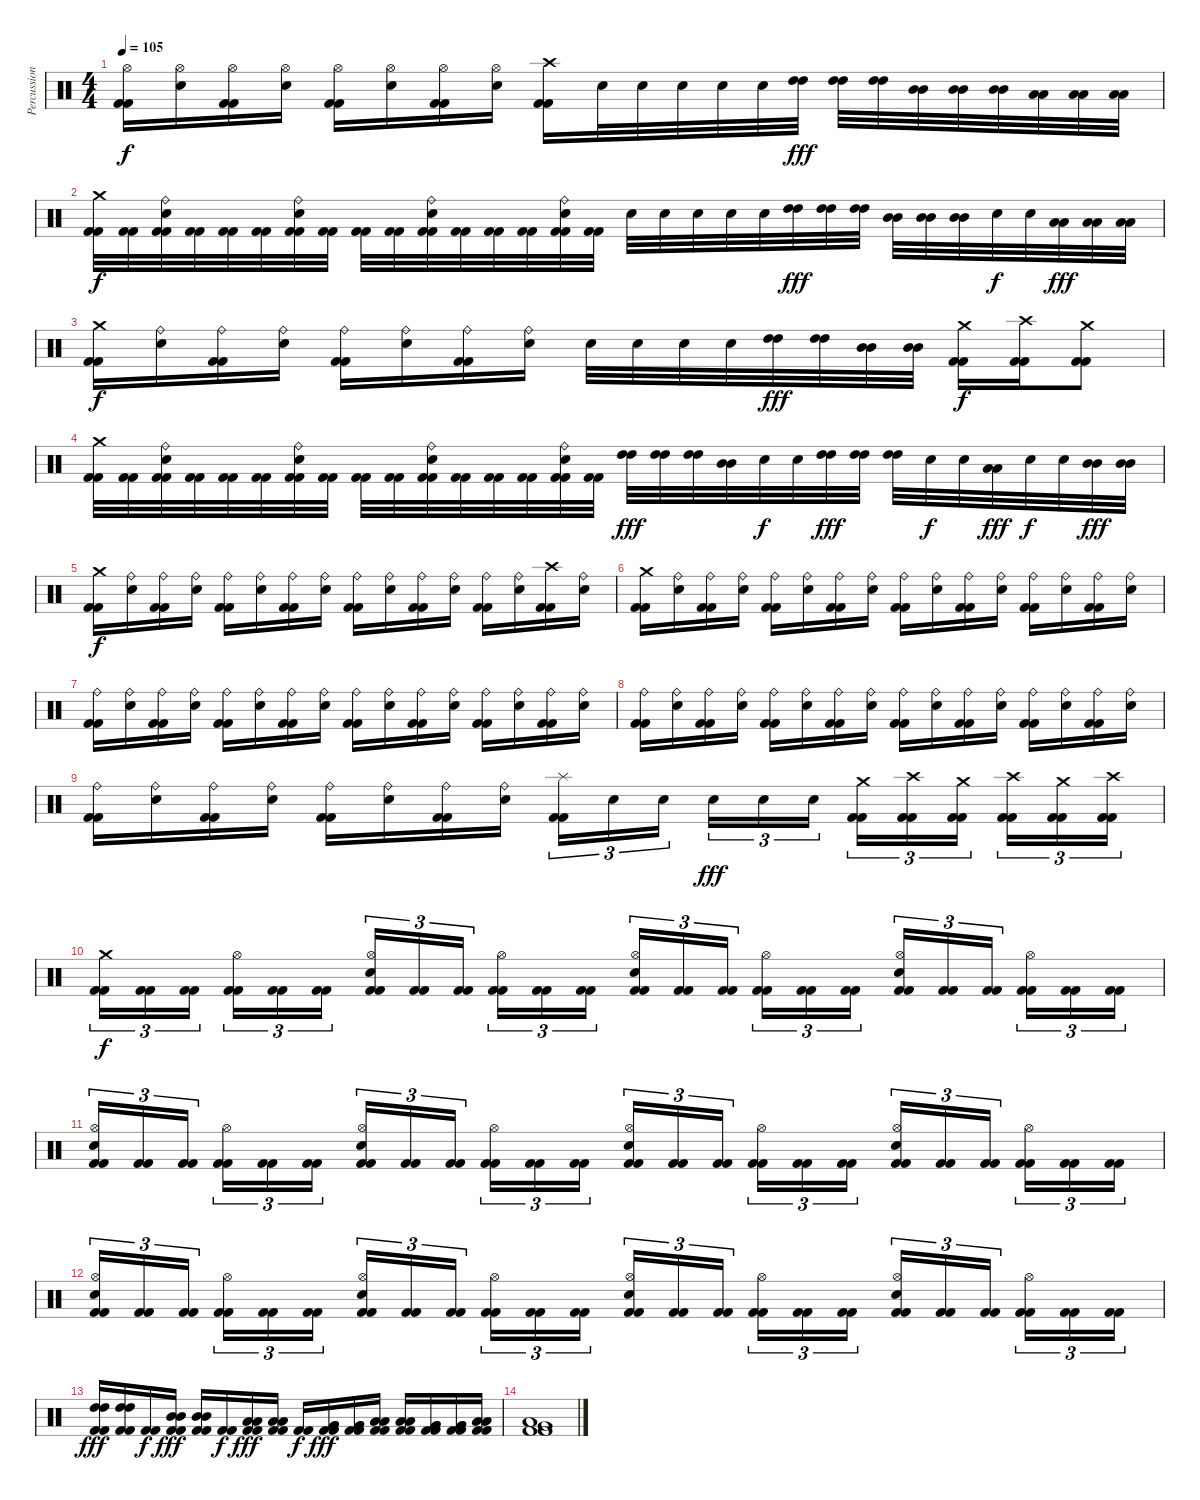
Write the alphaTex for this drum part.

\track ("Percussion" "Percussion") {instrument percussion}
\staff {score}
\articulation defaults
\ts (4 4)
\tempo 105
\clef neutral
\ks c
("Kick (hit) 2" "Kick (hit) 2" "Hi-Hat (open)").16{dy f} ("Hi-Hat (open)" "Electric Snare (hit)").16 ("Kick (hit) 2" "Kick (hit) 2" "Hi-Hat (open)").16 ("Hi-Hat (open)" "Electric Snare (hit)").16 ("Kick (hit) 2" "Kick (hit) 2" "Hi-Hat (open)").16 ("Hi-Hat (open)" "Electric Snare (hit)").16 ("Kick (hit) 2" "Kick (hit) 2" "Hi-Hat (open)").16 ("Hi-Hat (open)" "Electric Snare (hit)").16 ("Kick (hit) 2" "Kick (hit) 2" "Crash high (hit)").16 "Electric Snare (hit)".32 "Electric Snare (hit)".32 "Electric Snare (hit)".32 "Electric Snare (hit)".32 "Electric Snare (hit)".32 ("High Tom (hit)" "High Tom (hit)").32{dy fff} ("High Tom (hit)" "High Tom (hit)").32 ("High Tom (hit)" "High Tom (hit)").32 ("Mid Tom (hit)" "Mid Tom (hit)").32 ("Mid Tom (hit)" "Mid Tom (hit)").32 ("Mid Tom (hit)" "Mid Tom (hit)").32 ("Low Tom (hit)" "Low Tom (hit)").32 ("Low Tom (hit)" "Low Tom (hit)").32 ("Low Tom (hit)" "Low Tom (hit)").32 |
("Kick (hit) 2" "Kick (hit) 2" "Crash medium (hit)").32{dy f} ("Kick (hit) 2" "Kick (hit) 2").32 ("Kick (hit) 2" "Kick (hit) 2" "Ride (bell)" "Electric Snare (hit)").32 ("Kick (hit) 2" "Kick (hit) 2").32 ("Kick (hit) 2" "Kick (hit) 2").32 ("Kick (hit) 2" "Kick (hit) 2").32 ("Kick (hit) 2" "Kick (hit) 2" "Ride (bell)" "Electric Snare (hit)").32 ("Kick (hit) 2" "Kick (hit) 2").32 ("Kick (hit) 2" "Kick (hit) 2").32 ("Kick (hit) 2" "Kick (hit) 2").32 ("Kick (hit) 2" "Kick (hit) 2" "Ride (bell)" "Electric Snare (hit)").32 ("Kick (hit) 2" "Kick (hit) 2").32 ("Kick (hit) 2" "Kick (hit) 2").32 ("Kick (hit) 2" "Kick (hit) 2").32 ("Kick (hit) 2" "Kick (hit) 2" "Ride (bell)" "Electric Snare (hit)").32 ("Kick (hit) 2" "Kick (hit) 2").32 "Electric Snare (hit)".32 "Electric Snare (hit)".32 "Electric Snare (hit)".32 "Electric Snare (hit)".32 "Electric Snare (hit)".32 ("High Tom (hit)" "High Tom (hit)").32{dy fff} ("High Tom (hit)" "High Tom (hit)").32 ("High Tom (hit)" "High Tom (hit)").32 ("Mid Tom (hit)" "Mid Tom (hit)").32 ("Mid Tom (hit)" "Mid Tom (hit)").32 ("Mid Tom (hit)" "Mid Tom (hit)").32 "Electric Snare (hit)".32{dy f} "Electric Snare (hit)".32 ("Low Tom (hit)" "Low Tom (hit)").32{dy fff} ("Low Tom (hit)" "Low Tom (hit)").32 ("Low Tom (hit)" "Low Tom (hit)").32 |
("Kick (hit) 2" "Kick (hit) 2" "Crash medium (hit)").16{dy f} ("Ride (bell)" "Electric Snare (hit)").16 ("Kick (hit) 2" "Kick (hit) 2" "Ride (bell)").16 ("Ride (bell)" "Electric Snare (hit)").16 ("Kick (hit) 2" "Kick (hit) 2" "Ride (bell)").16 ("Ride (bell)" "Electric Snare (hit)").16 ("Kick (hit) 2" "Kick (hit) 2" "Ride (bell)").16 ("Ride (bell)" "Electric Snare (hit)").16 "Electric Snare (hit)".32 "Electric Snare (hit)".32 "Electric Snare (hit)".32 "Electric Snare (hit)".32 ("High Tom (hit)" "High Tom (hit)").32{dy fff} ("High Tom (hit)" "High Tom (hit)").32 ("Mid Tom (hit)" "Mid Tom (hit)").32 ("Mid Tom (hit)" "Mid Tom (hit)").32 ("Kick (hit) 2" "Kick (hit) 2" "Crash medium (hit)").16{dy f} ("Kick (hit) 2" "Kick (hit) 2" "Crash high (hit)").16 ("Kick (hit) 2" "Kick (hit) 2" "Crash medium (hit)").8 |
("Kick (hit) 2" "Kick (hit) 2" "Crash medium (hit)").32 ("Kick (hit) 2" "Kick (hit) 2").32 ("Kick (hit) 2" "Kick (hit) 2" "Ride (bell)" "Electric Snare (hit)").32 ("Kick (hit) 2" "Kick (hit) 2").32 ("Kick (hit) 2" "Kick (hit) 2").32 ("Kick (hit) 2" "Kick (hit) 2").32 ("Kick (hit) 2" "Kick (hit) 2" "Ride (bell)" "Electric Snare (hit)").32 ("Kick (hit) 2" "Kick (hit) 2").32 ("Kick (hit) 2" "Kick (hit) 2").32 ("Kick (hit) 2" "Kick (hit) 2").32 ("Kick (hit) 2" "Kick (hit) 2" "Ride (bell)" "Electric Snare (hit)").32 ("Kick (hit) 2" "Kick (hit) 2").32 ("Kick (hit) 2" "Kick (hit) 2").32 ("Kick (hit) 2" "Kick (hit) 2").32 ("Kick (hit) 2" "Kick (hit) 2" "Ride (bell)" "Electric Snare (hit)").32 ("Kick (hit) 2" "Kick (hit) 2").32 ("High Tom (hit)" "High Tom (hit)").32{dy fff} ("High Tom (hit)" "High Tom (hit)").32 ("High Tom (hit)" "High Tom (hit)").32 ("Mid Tom (hit)" "Mid Tom (hit)").32 "Electric Snare (hit)".32{dy f} "Electric Snare (hit)".32 ("High Tom (hit)" "High Tom (hit)").32{dy fff} ("High Tom (hit)" "High Tom (hit)").32 ("High Tom (hit)" "High Tom (hit)").32 "Electric Snare (hit)".32{dy f} "Electric Snare (hit)".32 ("Low Tom (hit)" "Low Tom (hit)").32{dy fff} "Electric Snare (hit)".32{dy f} "Electric Snare (hit)".32 ("Mid Tom (hit)" "Mid Tom (hit)").32{dy fff} ("Mid Tom (hit)" "Mid Tom (hit)").32 |
("Kick (hit) 2" "Kick (hit) 2" "Crash medium (hit)").16{dy f} ("Ride (bell)" "Electric Snare (hit)").16 ("Kick (hit) 2" "Kick (hit) 2" "Ride (bell)").16 ("Ride (bell)" "Electric Snare (hit)").16 ("Kick (hit) 2" "Kick (hit) 2" "Ride (bell)").16 ("Ride (bell)" "Electric Snare (hit)").16 ("Kick (hit) 2" "Kick (hit) 2" "Ride (bell)").16 ("Ride (bell)" "Electric Snare (hit)").16 ("Kick (hit) 2" "Kick (hit) 2" "Ride (bell)").16 ("Ride (bell)" "Electric Snare (hit)").16 ("Kick (hit) 2" "Kick (hit) 2" "Ride (bell)").16 ("Ride (bell)" "Electric Snare (hit)").16 ("Kick (hit) 2" "Kick (hit) 2" "Ride (bell)").16 ("Ride (bell)" "Electric Snare (hit)").16 ("Kick (hit) 2" "Kick (hit) 2" "Crash high (hit)").16 ("Ride (bell)" "Electric Snare (hit)").16 |
("Kick (hit) 2" "Kick (hit) 2" "Crash medium (hit)").16 ("Ride (bell)" "Electric Snare (hit)").16 ("Kick (hit) 2" "Kick (hit) 2" "Ride (bell)").16 ("Ride (bell)" "Electric Snare (hit)").16 ("Kick (hit) 2" "Kick (hit) 2" "Ride (bell)").16 ("Ride (bell)" "Electric Snare (hit)").16 ("Kick (hit) 2" "Kick (hit) 2" "Ride (bell)").16 ("Ride (bell)" "Electric Snare (hit)").16 ("Kick (hit) 2" "Kick (hit) 2" "Ride (bell)").16 ("Ride (bell)" "Electric Snare (hit)").16 ("Kick (hit) 2" "Kick (hit) 2" "Ride (bell)").16 ("Ride (bell)" "Electric Snare (hit)").16 ("Kick (hit) 2" "Kick (hit) 2" "Ride (bell)").16 ("Ride (bell)" "Electric Snare (hit)").16 ("Kick (hit) 2" "Kick (hit) 2" "Ride (bell)").16 ("Ride (bell)" "Electric Snare (hit)").16 |
("Kick (hit) 2" "Kick (hit) 2" "Ride (bell)").16 ("Ride (bell)" "Electric Snare (hit)").16 ("Kick (hit) 2" "Kick (hit) 2" "Ride (bell)").16 ("Ride (bell)" "Electric Snare (hit)").16 ("Kick (hit) 2" "Kick (hit) 2" "Ride (bell)").16 ("Ride (bell)" "Electric Snare (hit)").16 ("Kick (hit) 2" "Kick (hit) 2" "Ride (bell)").16 ("Ride (bell)" "Electric Snare (hit)").16 ("Kick (hit) 2" "Kick (hit) 2" "Ride (bell)").16 ("Ride (bell)" "Electric Snare (hit)").16 ("Kick (hit) 2" "Kick (hit) 2" "Ride (bell)").16 ("Ride (bell)" "Electric Snare (hit)").16 ("Kick (hit) 2" "Kick (hit) 2" "Ride (bell)").16 ("Ride (bell)" "Electric Snare (hit)").16 ("Kick (hit) 2" "Kick (hit) 2" "Ride (bell)").16 ("Ride (bell)" "Electric Snare (hit)").16 |
("Kick (hit) 2" "Kick (hit) 2" "Ride (bell)").16 ("Ride (bell)" "Electric Snare (hit)").16 ("Kick (hit) 2" "Kick (hit) 2" "Ride (bell)").16 ("Ride (bell)" "Electric Snare (hit)").16 ("Kick (hit) 2" "Kick (hit) 2" "Ride (bell)").16 ("Ride (bell)" "Electric Snare (hit)").16 ("Kick (hit) 2" "Kick (hit) 2" "Ride (bell)").16 ("Ride (bell)" "Electric Snare (hit)").16 ("Kick (hit) 2" "Kick (hit) 2" "Ride (bell)").16 ("Ride (bell)" "Electric Snare (hit)").16 ("Kick (hit) 2" "Kick (hit) 2" "Ride (bell)").16 ("Ride (bell)" "Electric Snare (hit)").16 ("Kick (hit) 2" "Kick (hit) 2" "Ride (bell)").16 ("Ride (bell)" "Electric Snare (hit)").16 ("Kick (hit) 2" "Kick (hit) 2" "Ride (bell)").16 ("Ride (bell)" "Electric Snare (hit)").16 |
("Kick (hit) 2" "Kick (hit) 2" "Ride (bell)").16 ("Ride (bell)" "Electric Snare (hit)").16 ("Kick (hit) 2" "Kick (hit) 2" "Ride (bell)").16 ("Ride (bell)" "Electric Snare (hit)").16 ("Kick (hit) 2" "Kick (hit) 2" "Ride (bell)").16 ("Ride (bell)" "Electric Snare (hit)").16 ("Kick (hit) 2" "Kick (hit) 2" "Ride (bell)").16 ("Ride (bell)" "Electric Snare (hit)").16 ("Kick (hit) 2" "Kick (hit) 2" "Splash (hit)").16{tu (3 2)} "Electric Snare (hit)".16{tu (3 2)} "Electric Snare (hit)".16{tu (3 2)} "Electric Snare (hit)".16{tu (3 2) dy fff} "Electric Snare (hit)".16{tu (3 2)} "Electric Snare (hit)".16{tu (3 2)} ("Kick (hit) 2" "Kick (hit) 2" "Crash medium (hit)").16{tu (3 2)} ("Kick (hit) 2" "Kick (hit) 2" "Crash high (hit)").16{tu (3 2)} ("Kick (hit) 2" "Kick (hit) 2" "Crash medium (hit)").16{tu (3 2)} ("Kick (hit) 2" "Kick (hit) 2" "Crash high (hit)").16{tu (3 2)} ("Kick (hit) 2" "Kick (hit) 2" "Crash medium (hit)").16{tu (3 2)} ("Kick (hit) 2" "Kick (hit) 2" "Crash high (hit)").16{tu (3 2)} |
("Kick (hit) 2" "Kick (hit) 2" "Crash medium (hit)").16{tu (3 2) dy f} ("Kick (hit) 2" "Kick (hit) 2").16{tu (3 2)} ("Kick (hit) 2" "Kick (hit) 2").16{tu (3 2)} ("Kick (hit) 2" "Kick (hit) 2" "Hi-Hat (open)").16{tu (3 2)} ("Kick (hit) 2" "Kick (hit) 2").16{tu (3 2)} ("Kick (hit) 2" "Kick (hit) 2").16{tu (3 2)} ("Kick (hit) 2" "Kick (hit) 2" "Hi-Hat (open)" "Electric Snare (hit)").16{tu (3 2)} ("Kick (hit) 2" "Kick (hit) 2").16{tu (3 2)} ("Kick (hit) 2" "Kick (hit) 2").16{tu (3 2)} ("Kick (hit) 2" "Kick (hit) 2" "Hi-Hat (open)").16{tu (3 2)} ("Kick (hit) 2" "Kick (hit) 2").16{tu (3 2)} ("Kick (hit) 2" "Kick (hit) 2").16{tu (3 2)} ("Kick (hit) 2" "Kick (hit) 2" "Hi-Hat (open)" "Electric Snare (hit)").16{tu (3 2)} ("Kick (hit) 2" "Kick (hit) 2").16{tu (3 2)} ("Kick (hit) 2" "Kick (hit) 2").16{tu (3 2)} ("Kick (hit) 2" "Kick (hit) 2" "Hi-Hat (open)").16{tu (3 2)} ("Kick (hit) 2" "Kick (hit) 2").16{tu (3 2)} ("Kick (hit) 2" "Kick (hit) 2").16{tu (3 2)} ("Kick (hit) 2" "Kick (hit) 2" "Hi-Hat (open)" "Electric Snare (hit)").16{tu (3 2)} ("Kick (hit) 2" "Kick (hit) 2").16{tu (3 2)} ("Kick (hit) 2" "Kick (hit) 2").16{tu (3 2)} ("Kick (hit) 2" "Kick (hit) 2" "Hi-Hat (open)").16{tu (3 2)} ("Kick (hit) 2" "Kick (hit) 2").16{tu (3 2)} ("Kick (hit) 2" "Kick (hit) 2").16{tu (3 2)} |
("Kick (hit) 2" "Kick (hit) 2" "Hi-Hat (open)" "Electric Snare (hit)").16{tu (3 2)} ("Kick (hit) 2" "Kick (hit) 2").16{tu (3 2)} ("Kick (hit) 2" "Kick (hit) 2").16{tu (3 2)} ("Kick (hit) 2" "Kick (hit) 2" "Hi-Hat (open)").16{tu (3 2)} ("Kick (hit) 2" "Kick (hit) 2").16{tu (3 2)} ("Kick (hit) 2" "Kick (hit) 2").16{tu (3 2)} ("Kick (hit) 2" "Kick (hit) 2" "Hi-Hat (open)" "Electric Snare (hit)").16{tu (3 2)} ("Kick (hit) 2" "Kick (hit) 2").16{tu (3 2)} ("Kick (hit) 2" "Kick (hit) 2").16{tu (3 2)} ("Kick (hit) 2" "Kick (hit) 2" "Hi-Hat (open)").16{tu (3 2)} ("Kick (hit) 2" "Kick (hit) 2").16{tu (3 2)} ("Kick (hit) 2" "Kick (hit) 2").16{tu (3 2)} ("Kick (hit) 2" "Kick (hit) 2" "Hi-Hat (open)" "Electric Snare (hit)").16{tu (3 2)} ("Kick (hit) 2" "Kick (hit) 2").16{tu (3 2)} ("Kick (hit) 2" "Kick (hit) 2").16{tu (3 2)} ("Kick (hit) 2" "Kick (hit) 2" "Hi-Hat (open)").16{tu (3 2)} ("Kick (hit) 2" "Kick (hit) 2").16{tu (3 2)} ("Kick (hit) 2" "Kick (hit) 2").16{tu (3 2)} ("Kick (hit) 2" "Kick (hit) 2" "Hi-Hat (open)" "Electric Snare (hit)").16{tu (3 2)} ("Kick (hit) 2" "Kick (hit) 2").16{tu (3 2)} ("Kick (hit) 2" "Kick (hit) 2").16{tu (3 2)} ("Kick (hit) 2" "Kick (hit) 2" "Hi-Hat (open)").16{tu (3 2)} ("Kick (hit) 2" "Kick (hit) 2").16{tu (3 2)} ("Kick (hit) 2" "Kick (hit) 2").16{tu (3 2)} |
("Kick (hit) 2" "Kick (hit) 2" "Hi-Hat (open)" "Electric Snare (hit)").16{tu (3 2)} ("Kick (hit) 2" "Kick (hit) 2").16{tu (3 2)} ("Kick (hit) 2" "Kick (hit) 2").16{tu (3 2)} ("Kick (hit) 2" "Kick (hit) 2" "Hi-Hat (open)").16{tu (3 2)} ("Kick (hit) 2" "Kick (hit) 2").16{tu (3 2)} ("Kick (hit) 2" "Kick (hit) 2").16{tu (3 2)} ("Kick (hit) 2" "Kick (hit) 2" "Hi-Hat (open)" "Electric Snare (hit)").16{tu (3 2)} ("Kick (hit) 2" "Kick (hit) 2").16{tu (3 2)} ("Kick (hit) 2" "Kick (hit) 2").16{tu (3 2)} ("Kick (hit) 2" "Kick (hit) 2" "Hi-Hat (open)").16{tu (3 2)} ("Kick (hit) 2" "Kick (hit) 2").16{tu (3 2)} ("Kick (hit) 2" "Kick (hit) 2").16{tu (3 2)} ("Kick (hit) 2" "Kick (hit) 2" "Hi-Hat (open)" "Electric Snare (hit)").16{tu (3 2)} ("Kick (hit) 2" "Kick (hit) 2").16{tu (3 2)} ("Kick (hit) 2" "Kick (hit) 2").16{tu (3 2)} ("Kick (hit) 2" "Kick (hit) 2" "Hi-Hat (open)").16{tu (3 2)} ("Kick (hit) 2" "Kick (hit) 2").16{tu (3 2)} ("Kick (hit) 2" "Kick (hit) 2").16{tu (3 2)} ("Kick (hit) 2" "Kick (hit) 2" "Hi-Hat (open)" "Electric Snare (hit)").16{tu (3 2)} ("Kick (hit) 2" "Kick (hit) 2").16{tu (3 2)} ("Kick (hit) 2" "Kick (hit) 2").16{tu (3 2)} ("Kick (hit) 2" "Kick (hit) 2" "Hi-Hat (open)").16{tu (3 2)} ("Kick (hit) 2" "Kick (hit) 2").16{tu (3 2)} ("Kick (hit) 2" "Kick (hit) 2").16{tu (3 2)} |
("Kick (hit) 2" "Kick (hit) 2" "High Tom (hit)" "High Tom (hit)").16{dy fff} ("Kick (hit) 2" "Kick (hit) 2" "High Tom (hit)" "High Tom (hit)").16 ("Kick (hit) 2" "Kick (hit) 2").16{dy f} ("Kick (hit) 2" "Kick (hit) 2" "Mid Tom (hit)" "Mid Tom (hit)").16{dy fff} ("Kick (hit) 2" "Kick (hit) 2" "Mid Tom (hit)" "Mid Tom (hit)").16 ("Kick (hit) 2" "Kick (hit) 2").16{dy f} ("Kick (hit) 2" "Kick (hit) 2" "Low Tom (hit)" "Low Tom (hit)").16{dy fff} ("Kick (hit) 2" "Kick (hit) 2" "Low Tom (hit)" "Low Tom (hit)").16 ("Kick (hit) 2" "Kick (hit) 2").16{dy f} ("Kick (hit) 2" "Kick (hit) 2" "Very Low Tom (hit)" "Very Low Tom (hit)").16{dy fff} ("Kick (hit) 2" "Kick (hit) 2" "Very Low Tom (hit)" "Very Low Tom (hit)").16 ("Kick (hit) 2" "Kick (hit) 2" "Low Floor Tom (hit)" "Low Floor Tom (hit)").16 ("Kick (hit) 2" "Kick (hit) 2" "Low Floor Tom (hit)" "Low Floor Tom (hit)").16 ("Kick (hit) 2" "Kick (hit) 2" "Very Low Tom (hit)" "Very Low Tom (hit)").16 ("Kick (hit) 2" "Kick (hit) 2" "Very Low Tom (hit)" "Very Low Tom (hit)").16 ("Kick (hit) 2" "Kick (hit) 2" "Low Floor Tom (hit)" "Low Floor Tom (hit)").16 |
("Kick (hit) 2" "Kick (hit) 2" "Very Low Tom (hit)" "Low Floor Tom (hit)").1
